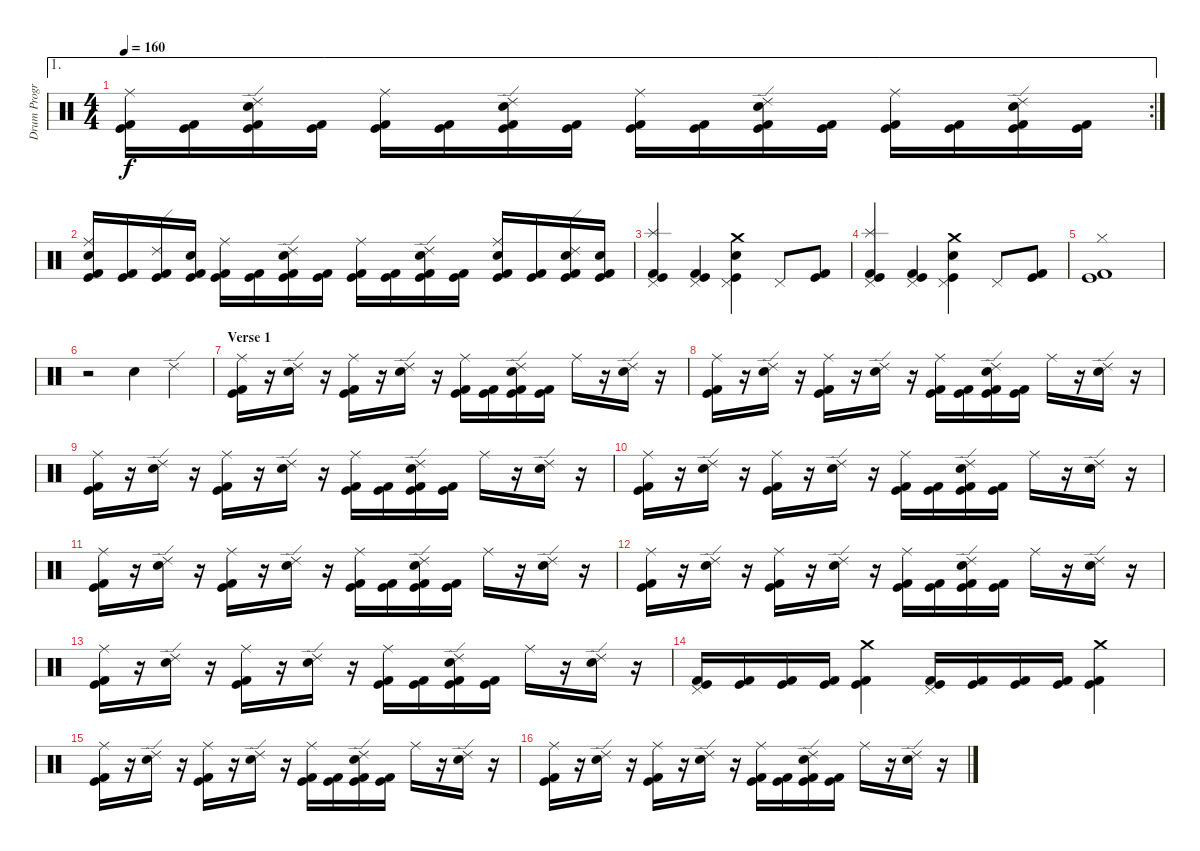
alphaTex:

\track ("Drum Program - BG" "Drum Progr") {instrument percussion}
\staff {score}
\articulation defaults
\ae 1
\rc 2
\ts (4 4)
\tempo 160
\clef neutral
\ks c
("Kick (hit)" "Kick (hit) 2" "Ride (middle)").16{dy f} ("Kick (hit)" "Kick (hit) 2").16 ("Kick (hit)" "Kick (hit) 2" "Electric Snare (hit)" "Ride (edge) 2").16 ("Kick (hit)" "Kick (hit) 2").16 ("Kick (hit)" "Kick (hit) 2" "Ride (middle)").16 ("Kick (hit)" "Kick (hit) 2").16 ("Kick (hit)" "Kick (hit) 2" "Electric Snare (hit)" "Ride (edge) 2").16 ("Kick (hit)" "Kick (hit) 2").16 ("Kick (hit)" "Kick (hit) 2" "Ride (middle)").16 ("Kick (hit)" "Kick (hit) 2").16 ("Kick (hit)" "Kick (hit) 2" "Electric Snare (hit)" "Ride (edge) 2").16 ("Kick (hit)" "Kick (hit) 2").16 ("Kick (hit)" "Kick (hit) 2" "Ride (middle)").16 ("Kick (hit)" "Kick (hit) 2").16 ("Kick (hit)" "Kick (hit) 2" "Electric Snare (hit)" "Ride (edge) 2").16 ("Kick (hit)" "Kick (hit) 2").16 |
("Kick (hit)" "Kick (hit) 2" "Electric Snare (hit)" "Ride (middle)").16 ("Kick (hit)" "Kick (hit) 2").16 ("Kick (hit)" "Kick (hit) 2" "Ride (edge) 2").16 ("Kick (hit)" "Kick (hit) 2" "Electric Snare (hit)").16 ("Kick (hit)" "Kick (hit) 2" "Ride (middle)").16 ("Kick (hit)" "Kick (hit) 2").16 ("Kick (hit)" "Kick (hit) 2" "Electric Snare (hit)" "Ride (edge) 2").16 ("Kick (hit)" "Kick (hit) 2").16 ("Kick (hit)" "Kick (hit) 2" "Ride (middle)").16 ("Kick (hit)" "Kick (hit) 2").16 ("Kick (hit)" "Kick (hit) 2" "Electric Snare (hit)" "Ride (edge) 2").16 ("Kick (hit)" "Kick (hit) 2").16 ("Kick (hit)" "Kick (hit) 2" "Electric Snare (hit)" "Ride (middle)").16 ("Kick (hit)" "Kick (hit) 2").16 ("Kick (hit)" "Kick (hit) 2" "Electric Snare (hit)" "Ride (edge) 2").16 ("Kick (hit)" "Kick (hit) 2" "Electric Snare (hit)").16 |
("Kick (hit) 2" "Kick (hit)" "Splash (hit)" "Pedal Hi-Hat (hit)").4 ("Kick (hit) 2" "Kick (hit)" "Pedal Hi-Hat (hit)").4 ("Crash medium (hit)" "Kick (hit)" "Electric Snare (hit)" "Pedal Hi-Hat (hit)").4 "Pedal Hi-Hat (hit)".8 ("Kick (hit)" "Kick (hit) 2").8 |
("Kick (hit) 2" "Kick (hit)" "Splash (hit)" "Pedal Hi-Hat (hit)").4 ("Kick (hit) 2" "Kick (hit)" "Pedal Hi-Hat (hit)").4 ("Crash medium (hit)" "Kick (hit)" "Electric Snare (hit)" "Pedal Hi-Hat (hit)").4 "Pedal Hi-Hat (hit)".8 ("Kick (hit)" "Kick (hit) 2").8 |
("Kick (hit) 2" "Kick (hit)" "Hi-Hat (closed)").1 |
r.2 "Electric Snare (hit)".4 "Ride (edge) 2".4 |
\section ("" "Verse 1")
("Kick (hit) 2" "Kick (hit)" "Ride (middle)").16 r.16 ("Electric Snare (hit)" "Ride (edge) 2").16 r.16 ("Kick (hit)" "Kick (hit) 2" "Ride (middle)").16 r.16 ("Electric Snare (hit)" "Ride (edge) 2").16 r.16 ("Kick (hit)" "Kick (hit) 2" "Ride (middle)").16 ("Kick (hit)" "Kick (hit) 2").16 ("Kick (hit)" "Kick (hit) 2" "Electric Snare (hit)" "Ride (edge) 2").16 ("Kick (hit)" "Kick (hit) 2").16 "Ride (middle)".16 r.16 ("Electric Snare (hit)" "Ride (edge) 2").16 r.16 |
("Kick (hit) 2" "Kick (hit)" "Ride (middle)").16 r.16 ("Electric Snare (hit)" "Ride (edge) 2").16 r.16 ("Kick (hit)" "Kick (hit) 2" "Ride (middle)").16 r.16 ("Electric Snare (hit)" "Ride (edge) 2").16 r.16 ("Kick (hit)" "Kick (hit) 2" "Ride (middle)").16 ("Kick (hit)" "Kick (hit) 2").16 ("Kick (hit)" "Kick (hit) 2" "Electric Snare (hit)" "Ride (edge) 2").16 ("Kick (hit)" "Kick (hit) 2").16 "Ride (middle)".16 r.16 ("Electric Snare (hit)" "Ride (edge) 2").16 r.16 |
("Kick (hit) 2" "Kick (hit)" "Ride (middle)").16 r.16 ("Electric Snare (hit)" "Ride (edge) 2").16 r.16 ("Kick (hit)" "Kick (hit) 2" "Ride (middle)").16 r.16 ("Electric Snare (hit)" "Ride (edge) 2").16 r.16 ("Kick (hit)" "Kick (hit) 2" "Ride (middle)").16 ("Kick (hit)" "Kick (hit) 2").16 ("Kick (hit)" "Kick (hit) 2" "Electric Snare (hit)" "Ride (edge) 2").16 ("Kick (hit)" "Kick (hit) 2").16 "Ride (middle)".16 r.16 ("Electric Snare (hit)" "Ride (edge) 2").16 r.16 |
("Kick (hit) 2" "Kick (hit)" "Ride (middle)").16 r.16 ("Electric Snare (hit)" "Ride (edge) 2").16 r.16 ("Kick (hit)" "Kick (hit) 2" "Ride (middle)").16 r.16 ("Electric Snare (hit)" "Ride (edge) 2").16 r.16 ("Kick (hit)" "Kick (hit) 2" "Ride (middle)").16 ("Kick (hit)" "Kick (hit) 2").16 ("Kick (hit)" "Kick (hit) 2" "Electric Snare (hit)" "Ride (edge) 2").16 ("Kick (hit)" "Kick (hit) 2").16 "Ride (middle)".16 r.16 ("Electric Snare (hit)" "Ride (edge) 2").16 r.16 |
("Kick (hit) 2" "Kick (hit)" "Ride (middle)").16 r.16 ("Electric Snare (hit)" "Ride (edge) 2").16 r.16 ("Kick (hit)" "Kick (hit) 2" "Ride (middle)").16 r.16 ("Electric Snare (hit)" "Ride (edge) 2").16 r.16 ("Kick (hit)" "Kick (hit) 2" "Ride (middle)").16 ("Kick (hit)" "Kick (hit) 2").16 ("Kick (hit)" "Kick (hit) 2" "Electric Snare (hit)" "Ride (edge) 2").16 ("Kick (hit)" "Kick (hit) 2").16 "Ride (middle)".16 r.16 ("Electric Snare (hit)" "Ride (edge) 2").16 r.16 |
("Kick (hit) 2" "Kick (hit)" "Ride (middle)").16 r.16 ("Electric Snare (hit)" "Ride (edge) 2").16 r.16 ("Kick (hit)" "Kick (hit) 2" "Ride (middle)").16 r.16 ("Electric Snare (hit)" "Ride (edge) 2").16 r.16 ("Kick (hit)" "Kick (hit) 2" "Ride (middle)").16 ("Kick (hit)" "Kick (hit) 2").16 ("Kick (hit)" "Kick (hit) 2" "Electric Snare (hit)" "Ride (edge) 2").16 ("Kick (hit)" "Kick (hit) 2").16 "Ride (middle)".16 r.16 ("Electric Snare (hit)" "Ride (edge) 2").16 r.16 |
("Kick (hit) 2" "Kick (hit)" "Ride (middle)").16 r.16 ("Electric Snare (hit)" "Ride (edge) 2").16 r.16 ("Kick (hit)" "Kick (hit) 2" "Ride (middle)").16 r.16 ("Electric Snare (hit)" "Ride (edge) 2").16 r.16 ("Kick (hit)" "Kick (hit) 2" "Ride (middle)").16 ("Kick (hit)" "Kick (hit) 2").16 ("Kick (hit)" "Kick (hit) 2" "Electric Snare (hit)" "Ride (edge) 2").16 ("Kick (hit)" "Kick (hit) 2").16 "Ride (middle)".16 r.16 ("Electric Snare (hit)" "Ride (edge) 2").16 r.16 |
("Kick (hit)" "Kick (hit) 2" "Pedal Hi-Hat (hit)").16 ("Kick (hit)" "Kick (hit) 2").16 ("Kick (hit)" "Kick (hit) 2").16 ("Kick (hit)" "Kick (hit) 2").16 ("Kick (hit)" "Kick (hit) 2" "Crash medium (hit)").4 ("Kick (hit)" "Kick (hit) 2" "Pedal Hi-Hat (hit)").16 ("Kick (hit)" "Kick (hit) 2").16 ("Kick (hit)" "Kick (hit) 2").16 ("Kick (hit)" "Kick (hit) 2").16 ("Kick (hit)" "Kick (hit) 2" "Crash medium (hit)").4 |
("Kick (hit) 2" "Kick (hit)" "Ride (middle)").16 r.16 ("Electric Snare (hit)" "Ride (edge) 2").16 r.16 ("Kick (hit)" "Kick (hit) 2" "Ride (middle)").16 r.16 ("Electric Snare (hit)" "Ride (edge) 2").16 r.16 ("Kick (hit)" "Kick (hit) 2" "Ride (middle)").16 ("Kick (hit)" "Kick (hit) 2").16 ("Kick (hit)" "Kick (hit) 2" "Electric Snare (hit)" "Ride (edge) 2").16 ("Kick (hit)" "Kick (hit) 2").16 "Ride (middle)".16 r.16 ("Electric Snare (hit)" "Ride (edge) 2").16 r.16 |
("Kick (hit) 2" "Kick (hit)" "Ride (middle)").16 r.16 ("Electric Snare (hit)" "Ride (edge) 2").16 r.16 ("Kick (hit)" "Kick (hit) 2" "Ride (middle)").16 r.16 ("Electric Snare (hit)" "Ride (edge) 2").16 r.16 ("Kick (hit)" "Kick (hit) 2" "Ride (middle)").16 ("Kick (hit)" "Kick (hit) 2").16 ("Kick (hit)" "Kick (hit) 2" "Electric Snare (hit)" "Ride (edge) 2").16 ("Kick (hit)" "Kick (hit) 2").16 "Ride (middle)".16 r.16 ("Electric Snare (hit)" "Ride (edge) 2").16 r.16
